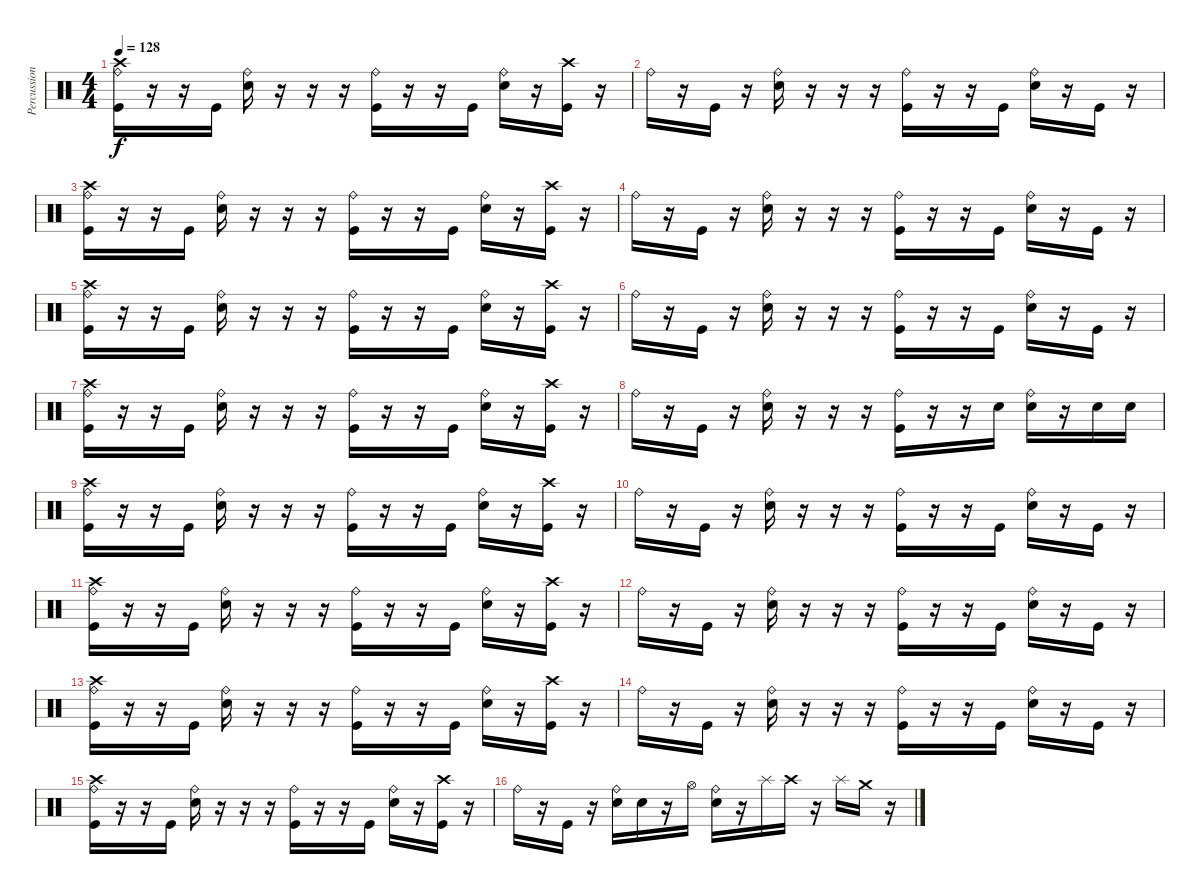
\track ("Percussion" "Percussion") {instrument percussion}
\staff {score}
\articulation defaults
\ts (4 4)
\tempo 128
\clef neutral
\ks c
("Crash high (hit)" "Ride (bell)" "Kick (hit)").16{dy f} r.16 r.16 "Kick (hit)".16 ("Ride (bell)" "Electric Snare (hit)").16 r.16 r.16 r.16 ("Ride (bell)" "Kick (hit)").16 r.16 r.16 "Kick (hit)".16 ("Ride (bell)" "Electric Snare (hit)").16 r.16 ("Crash high (hit)" "Kick (hit)").16 r.16 |
"Ride (bell)".16 r.16 "Kick (hit)".16 r.16 ("Ride (bell)" "Electric Snare (hit)").16 r.16 r.16 r.16 ("Ride (bell)" "Kick (hit)").16 r.16 r.16 "Kick (hit)".16 ("Ride (bell)" "Electric Snare (hit)").16 r.16 "Kick (hit)".16 r.16 |
("Crash high (hit)" "Ride (bell)" "Kick (hit)").16 r.16 r.16 "Kick (hit)".16 ("Ride (bell)" "Electric Snare (hit)").16 r.16 r.16 r.16 ("Ride (bell)" "Kick (hit)").16 r.16 r.16 "Kick (hit)".16 ("Ride (bell)" "Electric Snare (hit)").16 r.16 ("Crash high (hit)" "Kick (hit)").16 r.16 |
"Ride (bell)".16 r.16 "Kick (hit)".16 r.16 ("Ride (bell)" "Electric Snare (hit)").16 r.16 r.16 r.16 ("Ride (bell)" "Kick (hit)").16 r.16 r.16 "Kick (hit)".16 ("Ride (bell)" "Electric Snare (hit)").16 r.16 "Kick (hit)".16 r.16 |
("Crash high (hit)" "Ride (bell)" "Kick (hit)").16 r.16 r.16 "Kick (hit)".16 ("Ride (bell)" "Electric Snare (hit)").16 r.16 r.16 r.16 ("Ride (bell)" "Kick (hit)").16 r.16 r.16 "Kick (hit)".16 ("Ride (bell)" "Electric Snare (hit)").16 r.16 ("Crash high (hit)" "Kick (hit)").16 r.16 |
"Ride (bell)".16 r.16 "Kick (hit)".16 r.16 ("Ride (bell)" "Electric Snare (hit)").16 r.16 r.16 r.16 ("Ride (bell)" "Kick (hit)").16 r.16 r.16 "Kick (hit)".16 ("Ride (bell)" "Electric Snare (hit)").16 r.16 "Kick (hit)".16 r.16 |
("Crash high (hit)" "Ride (bell)" "Kick (hit)").16 r.16 r.16 "Kick (hit)".16 ("Ride (bell)" "Electric Snare (hit)").16 r.16 r.16 r.16 ("Ride (bell)" "Kick (hit)").16 r.16 r.16 "Kick (hit)".16 ("Ride (bell)" "Electric Snare (hit)").16 r.16 ("Crash high (hit)" "Kick (hit)").16 r.16 |
"Ride (bell)".16 r.16 "Kick (hit)".16 r.16 ("Ride (bell)" "Electric Snare (hit)").16 r.16 r.16 r.16 ("Ride (bell)" "Kick (hit)").16 r.16 r.16 "Electric Snare (hit)".16 ("Ride (bell)" "Electric Snare (hit)").16 r.16 "Electric Snare (hit)".16 "Electric Snare (hit)".16 |
("Crash high (hit)" "Ride (bell)" "Kick (hit)").16 r.16 r.16 "Kick (hit)".16 ("Ride (bell)" "Electric Snare (hit)").16 r.16 r.16 r.16 ("Ride (bell)" "Kick (hit)").16 r.16 r.16 "Kick (hit)".16 ("Ride (bell)" "Electric Snare (hit)").16 r.16 ("Crash high (hit)" "Kick (hit)").16 r.16 |
"Ride (bell)".16 r.16 "Kick (hit)".16 r.16 ("Ride (bell)" "Electric Snare (hit)").16 r.16 r.16 r.16 ("Ride (bell)" "Kick (hit)").16 r.16 r.16 "Kick (hit)".16 ("Ride (bell)" "Electric Snare (hit)").16 r.16 "Kick (hit)".16 r.16 |
("Crash high (hit)" "Ride (bell)" "Kick (hit)").16 r.16 r.16 "Kick (hit)".16 ("Ride (bell)" "Electric Snare (hit)").16 r.16 r.16 r.16 ("Ride (bell)" "Kick (hit)").16 r.16 r.16 "Kick (hit)".16 ("Ride (bell)" "Electric Snare (hit)").16 r.16 ("Crash high (hit)" "Kick (hit)").16 r.16 |
"Ride (bell)".16 r.16 "Kick (hit)".16 r.16 ("Ride (bell)" "Electric Snare (hit)").16 r.16 r.16 r.16 ("Ride (bell)" "Kick (hit)").16 r.16 r.16 "Kick (hit)".16 ("Ride (bell)" "Electric Snare (hit)").16 r.16 "Kick (hit)".16 r.16 |
("Crash high (hit)" "Ride (bell)" "Kick (hit)").16 r.16 r.16 "Kick (hit)".16 ("Ride (bell)" "Electric Snare (hit)").16 r.16 r.16 r.16 ("Ride (bell)" "Kick (hit)").16 r.16 r.16 "Kick (hit)".16 ("Ride (bell)" "Electric Snare (hit)").16 r.16 ("Crash high (hit)" "Kick (hit)").16 r.16 |
"Ride (bell)".16 r.16 "Kick (hit)".16 r.16 ("Ride (bell)" "Electric Snare (hit)").16 r.16 r.16 r.16 ("Ride (bell)" "Kick (hit)").16 r.16 r.16 "Kick (hit)".16 ("Ride (bell)" "Electric Snare (hit)").16 r.16 "Kick (hit)".16 r.16 |
("Crash high (hit)" "Ride (bell)" "Kick (hit)").16 r.16 r.16 "Kick (hit)".16 ("Ride (bell)" "Electric Snare (hit)").16 r.16 r.16 r.16 ("Ride (bell)" "Kick (hit)").16 r.16 r.16 "Kick (hit)".16 ("Ride (bell)" "Electric Snare (hit)").16 r.16 ("Crash high (hit)" "Kick (hit)").16 r.16 |
"Ride (bell)".16 r.16 "Kick (hit)".16 r.16 ("Ride (bell)" "Electric Snare (hit)").16 "Electric Snare (hit)".16 r.16 "Hi-Hat (open)".16 ("Ride (bell)" "Electric Snare (hit)").16 r.16 "Splash (hit)".16 "Crash high (hit)".16 r.16 "Splash (hit)".16 "Crash medium (hit)".16 r.16
